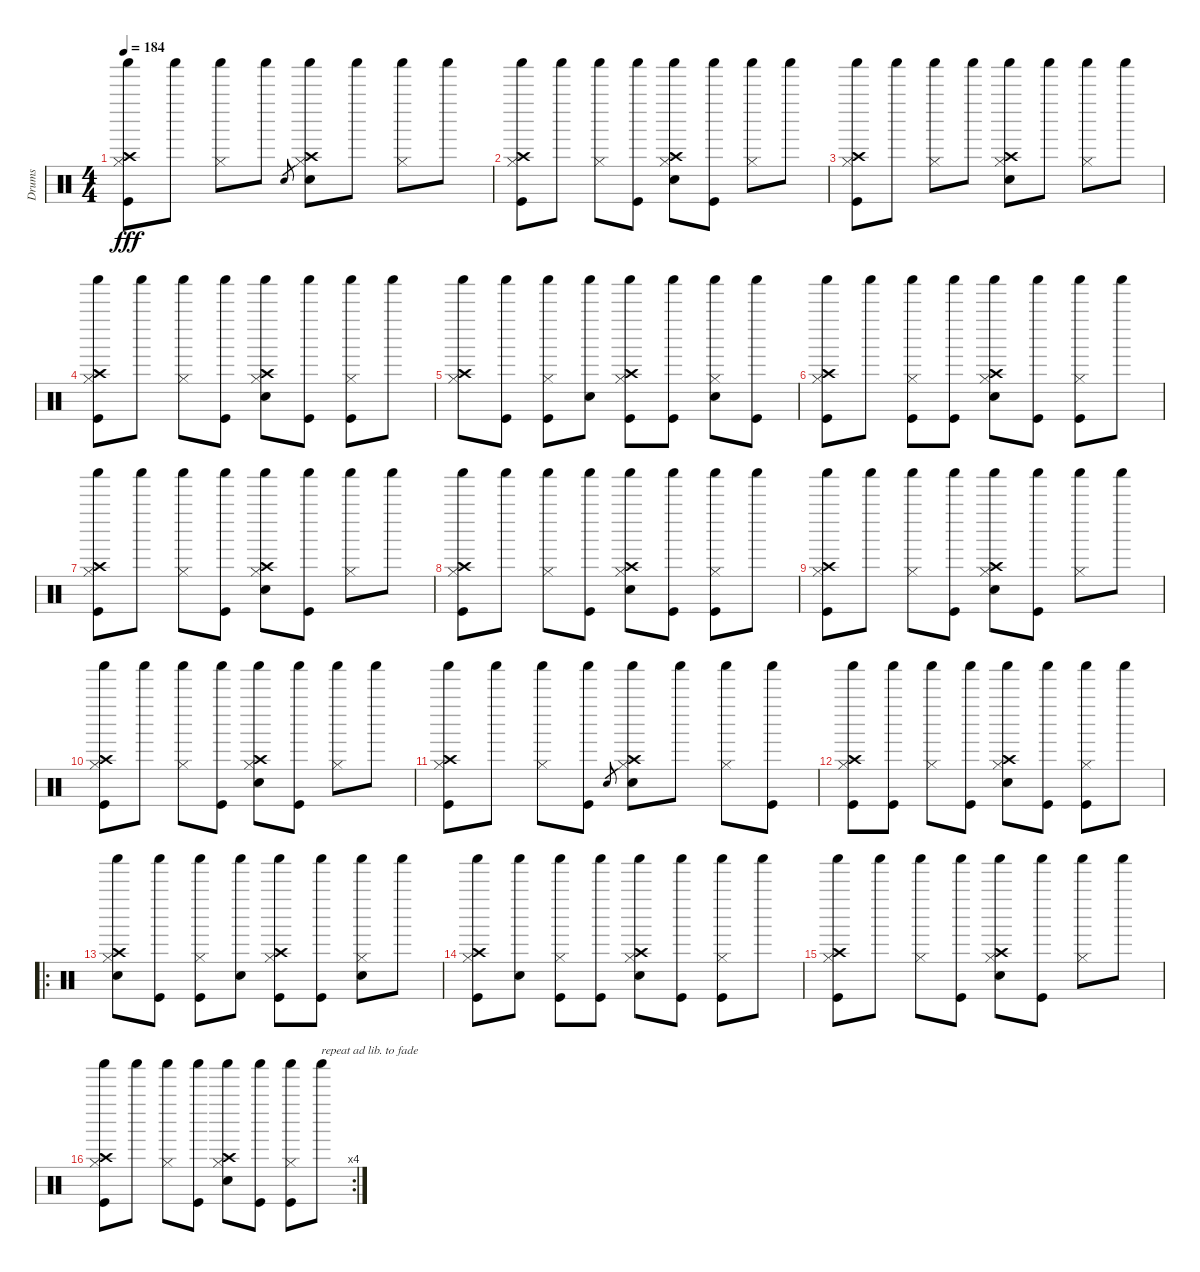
\track ("Drums" "Drums") {instrument percussion}
\staff {score}
\articulation defaults
\ts (4 4)
\tempo 184
\clef neutral
\ks c
("Hi-Hat (closed)" "Shaker (hit)" "Crash high (hit)" "Kick (hit)").8{dy fff} "Shaker (hit)".8 ("Hi-Hat (closed)" "Shaker (hit)").8 "Shaker (hit)".8 "Snare (hit) 2".8{gr} ("Hi-Hat (closed)" "Shaker (hit)" "Crash high (hit)" "Snare (hit) 2").8 "Shaker (hit)".8 ("Hi-Hat (closed)" "Shaker (hit)").8 "Shaker (hit)".8 |
("Hi-Hat (closed)" "Shaker (hit)" "Crash high (hit)" "Kick (hit)").8 "Shaker (hit)".8 ("Hi-Hat (closed)" "Shaker (hit)").8 ("Shaker (hit)" "Kick (hit)").8 ("Hi-Hat (closed)" "Shaker (hit)" "Crash high (hit)" "Snare (hit) 2").8 ("Shaker (hit)" "Kick (hit)").8 ("Hi-Hat (closed)" "Shaker (hit)").8 "Shaker (hit)".8 |
("Hi-Hat (closed)" "Shaker (hit)" "Crash high (hit)" "Kick (hit)").8 "Shaker (hit)".8 ("Hi-Hat (closed)" "Shaker (hit)").8 "Shaker (hit)".8 ("Hi-Hat (closed)" "Shaker (hit)" "Crash high (hit)" "Snare (hit) 2").8 "Shaker (hit)".8 ("Hi-Hat (closed)" "Shaker (hit)").8 "Shaker (hit)".8 |
("Hi-Hat (closed)" "Shaker (hit)" "Crash high (hit)" "Kick (hit)").8 "Shaker (hit)".8 ("Hi-Hat (closed)" "Shaker (hit)").8 ("Shaker (hit)" "Kick (hit)").8 ("Hi-Hat (closed)" "Shaker (hit)" "Crash high (hit)" "Snare (hit) 2").8 ("Shaker (hit)" "Kick (hit)").8 ("Hi-Hat (closed)" "Shaker (hit)" "Kick (hit)").8 "Shaker (hit)".8 |
("Hi-Hat (closed)" "Shaker (hit)" "Crash high (hit)").8 ("Shaker (hit)" "Kick (hit)").8 ("Hi-Hat (closed)" "Shaker (hit)" "Kick (hit)").8 ("Shaker (hit)" "Snare (hit) 2").8 ("Hi-Hat (closed)" "Shaker (hit)" "Crash high (hit)" "Kick (hit)").8 ("Shaker (hit)" "Kick (hit)").8 ("Hi-Hat (closed)" "Shaker (hit)" "Snare (hit) 2").8 ("Shaker (hit)" "Kick (hit)").8 |
("Hi-Hat (closed)" "Shaker (hit)" "Crash high (hit)" "Kick (hit)").8 "Shaker (hit)".8 ("Hi-Hat (closed)" "Shaker (hit)" "Kick (hit)").8 ("Shaker (hit)" "Kick (hit)").8 ("Hi-Hat (closed)" "Shaker (hit)" "Crash high (hit)" "Snare (hit) 2").8 ("Shaker (hit)" "Kick (hit)").8 ("Hi-Hat (closed)" "Shaker (hit)" "Kick (hit)").8 "Shaker (hit)".8 |
("Hi-Hat (closed)" "Shaker (hit)" "Crash high (hit)" "Kick (hit)").8 "Shaker (hit)".8 ("Hi-Hat (closed)" "Shaker (hit)").8 ("Shaker (hit)" "Kick (hit)").8 ("Hi-Hat (closed)" "Shaker (hit)" "Crash high (hit)" "Snare (hit) 2").8 ("Shaker (hit)" "Kick (hit)").8 ("Hi-Hat (closed)" "Shaker (hit)").8 "Shaker (hit)".8 |
("Hi-Hat (closed)" "Shaker (hit)" "Crash high (hit)" "Kick (hit)").8 "Shaker (hit)".8 ("Hi-Hat (closed)" "Shaker (hit)").8 ("Shaker (hit)" "Kick (hit)").8 ("Hi-Hat (closed)" "Shaker (hit)" "Crash high (hit)" "Snare (hit) 2").8 ("Shaker (hit)" "Kick (hit)").8 ("Hi-Hat (closed)" "Shaker (hit)" "Kick (hit)").8 "Shaker (hit)".8 |
("Hi-Hat (closed)" "Shaker (hit)" "Crash high (hit)" "Kick (hit)").8 "Shaker (hit)".8 ("Hi-Hat (closed)" "Shaker (hit)").8 ("Shaker (hit)" "Kick (hit)").8 ("Hi-Hat (closed)" "Shaker (hit)" "Crash high (hit)" "Snare (hit) 2").8 ("Shaker (hit)" "Kick (hit)").8 ("Hi-Hat (closed)" "Shaker (hit)").8 "Shaker (hit)".8 |
("Hi-Hat (closed)" "Shaker (hit)" "Crash high (hit)" "Kick (hit)").8 "Shaker (hit)".8 ("Hi-Hat (closed)" "Shaker (hit)").8 ("Shaker (hit)" "Kick (hit)").8 ("Hi-Hat (closed)" "Shaker (hit)" "Crash high (hit)" "Snare (hit) 2").8 ("Shaker (hit)" "Kick (hit)").8 ("Hi-Hat (closed)" "Shaker (hit)").8 "Shaker (hit)".8 |
("Hi-Hat (closed)" "Shaker (hit)" "Crash high (hit)" "Kick (hit)").8 "Shaker (hit)".8 ("Hi-Hat (closed)" "Shaker (hit)").8 ("Shaker (hit)" "Kick (hit)").8 "Snare (hit) 2".8{gr} ("Hi-Hat (closed)" "Shaker (hit)" "Crash high (hit)" "Snare (hit) 2").8 "Shaker (hit)".8 ("Hi-Hat (closed)" "Shaker (hit)").8 ("Shaker (hit)" "Kick (hit)").8 |
("Hi-Hat (closed)" "Shaker (hit)" "Crash high (hit)" "Kick (hit)").8 ("Shaker (hit)" "Kick (hit)").8 ("Hi-Hat (closed)" "Shaker (hit)").8 ("Shaker (hit)" "Kick (hit)").8 ("Hi-Hat (closed)" "Shaker (hit)" "Crash high (hit)" "Snare (hit) 2").8 ("Shaker (hit)" "Kick (hit)").8 ("Hi-Hat (closed)" "Shaker (hit)" "Kick (hit)").8 "Shaker (hit)".8 |
\ro
("Hi-Hat (closed)" "Shaker (hit)" "Crash high (hit)" "Snare (hit) 2").8 ("Shaker (hit)" "Kick (hit)").8 ("Hi-Hat (closed)" "Shaker (hit)" "Kick (hit)").8 ("Shaker (hit)" "Snare (hit) 2").8 ("Hi-Hat (closed)" "Shaker (hit)" "Crash high (hit)" "Kick (hit)").8 ("Shaker (hit)" "Kick (hit)").8 ("Hi-Hat (closed)" "Shaker (hit)" "Snare (hit) 2").8 "Shaker (hit)".8 |
("Hi-Hat (closed)" "Shaker (hit)" "Crash high (hit)" "Kick (hit)").8 ("Shaker (hit)" "Snare (hit) 2").8 ("Hi-Hat (closed)" "Shaker (hit)" "Kick (hit)").8 ("Shaker (hit)" "Kick (hit)").8 ("Hi-Hat (closed)" "Shaker (hit)" "Crash high (hit)" "Snare (hit) 2").8 ("Shaker (hit)" "Kick (hit)").8 ("Hi-Hat (closed)" "Shaker (hit)" "Kick (hit)").8 "Shaker (hit)".8 |
("Hi-Hat (closed)" "Shaker (hit)" "Crash high (hit)" "Kick (hit)").8 "Shaker (hit)".8 ("Hi-Hat (closed)" "Shaker (hit)").8 ("Shaker (hit)" "Kick (hit)").8 ("Hi-Hat (closed)" "Shaker (hit)" "Crash high (hit)" "Snare (hit) 2").8 ("Shaker (hit)" "Kick (hit)").8 ("Hi-Hat (closed)" "Shaker (hit)").8 "Shaker (hit)".8 |
\rc 4
("Hi-Hat (closed)" "Shaker (hit)" "Crash high (hit)" "Kick (hit)").8 "Shaker (hit)".8 ("Hi-Hat (closed)" "Shaker (hit)").8 ("Shaker (hit)" "Kick (hit)").8 ("Hi-Hat (closed)" "Shaker (hit)" "Crash high (hit)" "Snare (hit) 2").8 ("Shaker (hit)" "Kick (hit)").8 ("Hi-Hat (closed)" "Shaker (hit)" "Kick (hit)").8 "Shaker (hit)".8{txt "repeat ad lib. to fade"}
